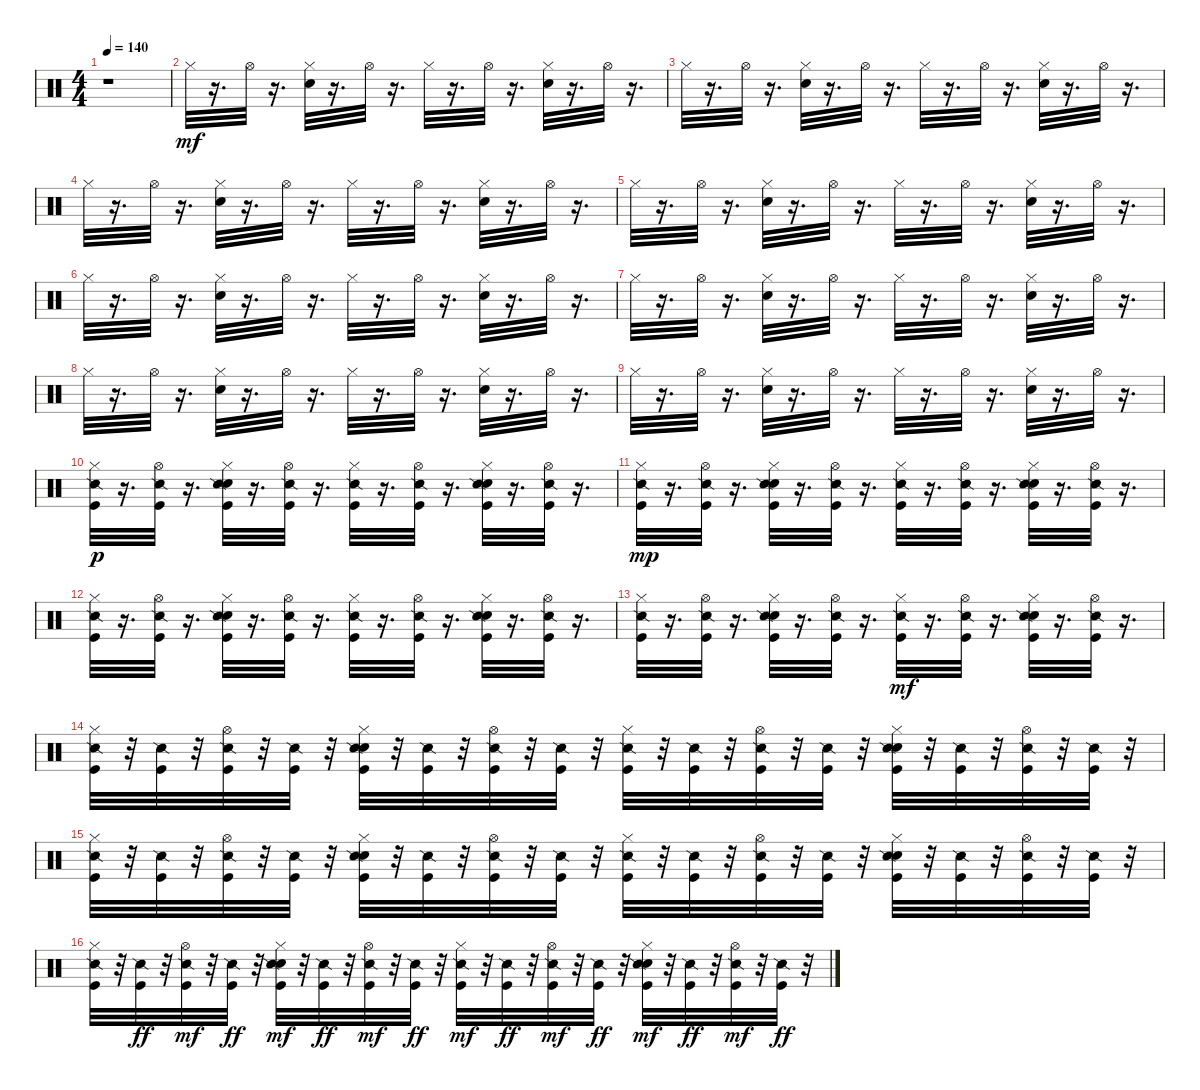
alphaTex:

\track "" {instrument percussion}
\staff {score}
\articulation defaults
\ts (4 4)
\tempo 140
\clef neutral
\ks c
r.1{dy mf} |
"Hi-Hat (closed)".32 r.16{d} "Hi-Hat (open)".32 r.16{d} ("Hi-Hat (closed)" "Hand Clap (hit)").32 r.16{d} "Hi-Hat (open)".32 r.16{d} "Hi-Hat (closed)".32 r.16{d} "Hi-Hat (open)".32 r.16{d} ("Hi-Hat (closed)" "Hand Clap (hit)").32 r.16{d} "Hi-Hat (open)".32 r.16{d} |
"Hi-Hat (closed)".32 r.16{d} "Hi-Hat (open)".32 r.16{d} ("Hi-Hat (closed)" "Hand Clap (hit)").32 r.16{d} "Hi-Hat (open)".32 r.16{d} "Hi-Hat (closed)".32 r.16{d} "Hi-Hat (open)".32 r.16{d} ("Hi-Hat (closed)" "Hand Clap (hit)").32 r.16{d} "Hi-Hat (open)".32 r.16{d} |
"Hi-Hat (closed)".32 r.16{d} "Hi-Hat (open)".32 r.16{d} ("Hi-Hat (closed)" "Hand Clap (hit)").32 r.16{d} "Hi-Hat (open)".32 r.16{d} "Hi-Hat (closed)".32 r.16{d} "Hi-Hat (open)".32 r.16{d} ("Hi-Hat (closed)" "Hand Clap (hit)").32 r.16{d} "Hi-Hat (open)".32 r.16{d} |
"Hi-Hat (closed)".32 r.16{d} "Hi-Hat (open)".32 r.16{d} ("Hi-Hat (closed)" "Hand Clap (hit)").32 r.16{d} "Hi-Hat (open)".32 r.16{d} "Hi-Hat (closed)".32 r.16{d} "Hi-Hat (open)".32 r.16{d} ("Hi-Hat (closed)" "Hand Clap (hit)").32 r.16{d} "Hi-Hat (open)".32 r.16{d} |
"Hi-Hat (closed)".32 r.16{d} "Hi-Hat (open)".32 r.16{d} ("Hi-Hat (closed)" "Hand Clap (hit)").32 r.16{d} "Hi-Hat (open)".32 r.16{d} "Hi-Hat (closed)".32 r.16{d} "Hi-Hat (open)".32 r.16{d} ("Hi-Hat (closed)" "Hand Clap (hit)").32 r.16{d} "Hi-Hat (open)".32 r.16{d} |
"Hi-Hat (closed)".32 r.16{d} "Hi-Hat (open)".32 r.16{d} ("Hi-Hat (closed)" "Hand Clap (hit)").32 r.16{d} "Hi-Hat (open)".32 r.16{d} "Hi-Hat (closed)".32 r.16{d} "Hi-Hat (open)".32 r.16{d} ("Hi-Hat (closed)" "Hand Clap (hit)").32 r.16{d} "Hi-Hat (open)".32 r.16{d} |
"Hi-Hat (closed)".32 r.16{d} "Hi-Hat (open)".32 r.16{d} ("Hi-Hat (closed)" "Hand Clap (hit)").32 r.16{d} "Hi-Hat (open)".32 r.16{d} "Hi-Hat (closed)".32 r.16{d} "Hi-Hat (open)".32 r.16{d} ("Hi-Hat (closed)" "Hand Clap (hit)").32 r.16{d} "Hi-Hat (open)".32 r.16{d} |
"Hi-Hat (closed)".32 r.16{d} "Hi-Hat (open)".32 r.16{d} ("Hi-Hat (closed)" "Hand Clap (hit)").32 r.16{d} "Hi-Hat (open)".32 r.16{d} "Hi-Hat (closed)".32 r.16{d} "Hi-Hat (open)".32 r.16{d} ("Hi-Hat (closed)" "Hand Clap (hit)").32 r.16{d} "Hi-Hat (open)".32 r.16{d} |
("Kick (hit)" "Hi-Hat (closed)" "Snare (side stick) 2").32{dy p} r.16{d} ("Kick (hit)" "Hi-Hat (open)" "Snare (side stick) 2").32 r.16{d} ("Kick (hit)" "Hi-Hat (closed)" "Hand Clap (hit)" "Snare (side stick) 2").32 r.16{d} ("Kick (hit)" "Hi-Hat (open)" "Snare (side stick) 2").32 r.16{d} ("Kick (hit)" "Hi-Hat (closed)" "Snare (side stick) 2").32 r.16{d} ("Kick (hit)" "Hi-Hat (open)" "Snare (side stick) 2").32 r.16{d} ("Kick (hit)" "Hi-Hat (closed)" "Hand Clap (hit)" "Snare (side stick) 2").32 r.16{d} ("Kick (hit)" "Hi-Hat (open)" "Snare (side stick) 2").32 r.16{d} |
("Kick (hit)" "Hi-Hat (closed)" "Snare (side stick) 2").32{dy mp} r.16{d} ("Kick (hit)" "Hi-Hat (open)" "Snare (side stick) 2").32 r.16{d} ("Kick (hit)" "Hand Clap (hit)" "Hi-Hat (closed)" "Snare (side stick) 2").32 r.16{d} ("Kick (hit)" "Hi-Hat (open)" "Snare (side stick) 2").32 r.16{d} ("Kick (hit)" "Hi-Hat (closed)" "Snare (side stick) 2").32 r.16{d} ("Kick (hit)" "Hi-Hat (open)" "Snare (side stick) 2").32 r.16{d} ("Kick (hit)" "Hand Clap (hit)" "Hi-Hat (closed)" "Snare (side stick) 2").32 r.16{d} ("Kick (hit)" "Hi-Hat (open)" "Snare (side stick) 2").32 r.16{d} |
("Kick (hit)" "Hi-Hat (closed)" "Snare (side stick) 2").32 r.16{d} ("Kick (hit)" "Hi-Hat (open)" "Snare (side stick) 2").32 r.16{d} ("Kick (hit)" "Hand Clap (hit)" "Hi-Hat (closed)" "Snare (side stick) 2").32 r.16{d} ("Kick (hit)" "Hi-Hat (open)" "Snare (side stick) 2").32 r.16{d} ("Kick (hit)" "Hi-Hat (closed)" "Snare (side stick) 2").32 r.16{d} ("Kick (hit)" "Hi-Hat (open)" "Snare (side stick) 2").32 r.16{d} ("Kick (hit)" "Hi-Hat (closed)" "Hand Clap (hit)" "Snare (side stick) 2").32 r.16{d} ("Kick (hit)" "Hi-Hat (open)" "Snare (side stick) 2").32 r.16{d} |
("Kick (hit)" "Hi-Hat (closed)" "Snare (side stick) 2").32 r.16{d} ("Kick (hit)" "Hi-Hat (open)" "Snare (side stick) 2").32 r.16{d} ("Kick (hit)" "Hi-Hat (closed)" "Hand Clap (hit)" "Snare (side stick) 2").32 r.16{d} ("Kick (hit)" "Hi-Hat (open)" "Snare (side stick) 2").32 r.16{d} ("Kick (hit)" "Hi-Hat (closed)" "Snare (side stick) 2").32{dy mf} r.16{d} ("Kick (hit)" "Hi-Hat (open)" "Snare (side stick) 2").32 r.16{d} ("Kick (hit)" "Hand Clap (hit)" "Hi-Hat (closed)" "Snare (side stick) 2").32 r.16{d} ("Kick (hit)" "Hi-Hat (open)" "Snare (side stick) 2").32 r.16{d} |
("Kick (hit)" "Hi-Hat (closed)" "Snare (side stick) 2").32 r.32 ("Kick (hit)" "Snare (side stick) 2").32 r.32 ("Kick (hit)" "Hi-Hat (open)" "Snare (side stick) 2").32 r.32 ("Kick (hit)" "Snare (side stick) 2").32 r.32 ("Kick (hit)" "Hand Clap (hit)" "Hi-Hat (closed)" "Snare (side stick) 2").32 r.32 ("Kick (hit)" "Snare (side stick) 2").32 r.32 ("Kick (hit)" "Hi-Hat (open)" "Snare (side stick) 2").32 r.32 ("Kick (hit)" "Snare (side stick) 2").32 r.32 ("Kick (hit)" "Hi-Hat (closed)" "Snare (side stick) 2").32 r.32 ("Kick (hit)" "Snare (side stick) 2").32 r.32 ("Kick (hit)" "Hi-Hat (open)" "Snare (side stick) 2").32 r.32 ("Kick (hit)" "Snare (side stick) 2").32 r.32 ("Kick (hit)" "Hi-Hat (closed)" "Hand Clap (hit)" "Snare (side stick) 2").32 r.32 ("Kick (hit)" "Snare (side stick) 2").32 r.32 ("Kick (hit)" "Hi-Hat (open)" "Snare (side stick) 2").32 r.32 ("Kick (hit)" "Snare (side stick) 2").32 r.32 |
("Kick (hit)" "Hi-Hat (closed)" "Snare (side stick) 2").32 r.32 ("Kick (hit)" "Snare (side stick) 2").32 r.32 ("Kick (hit)" "Hi-Hat (open)" "Snare (side stick) 2").32 r.32 ("Kick (hit)" "Snare (side stick) 2").32 r.32 ("Kick (hit)" "Hi-Hat (closed)" "Hand Clap (hit)" "Snare (side stick) 2").32 r.32 ("Kick (hit)" "Snare (side stick) 2").32 r.32 ("Kick (hit)" "Hi-Hat (open)" "Snare (side stick) 2").32 r.32 ("Kick (hit)" "Snare (side stick) 2").32 r.32 ("Kick (hit)" "Hi-Hat (closed)" "Snare (side stick) 2").32 r.32 ("Kick (hit)" "Snare (side stick) 2").32 r.32 ("Kick (hit)" "Hi-Hat (open)" "Snare (side stick) 2").32 r.32 ("Kick (hit)" "Snare (side stick) 2").32 r.32 ("Kick (hit)" "Hand Clap (hit)" "Hi-Hat (closed)" "Snare (side stick) 2").32 r.32 ("Kick (hit)" "Snare (side stick) 2").32 r.32 ("Kick (hit)" "Hi-Hat (open)" "Snare (side stick) 2").32 r.32 ("Kick (hit)" "Snare (side stick) 2").32 r.32 |
("Kick (hit)" "Hi-Hat (closed)" "Snare (side stick) 2").32 r.32 ("Kick (hit)" "Snare (side stick) 2").32{dy ff} r.32 ("Kick (hit)" "Hi-Hat (open)" "Snare (side stick) 2").32{dy mf} r.32 ("Kick (hit)" "Snare (side stick) 2").32{dy ff} r.32 ("Kick (hit)" "Hand Clap (hit)" "Hi-Hat (closed)" "Snare (side stick) 2").32{dy mf} r.32 ("Kick (hit)" "Snare (side stick) 2").32{dy ff} r.32 ("Kick (hit)" "Hi-Hat (open)" "Snare (side stick) 2").32{dy mf} r.32 ("Kick (hit)" "Snare (side stick) 2").32{dy ff} r.32 ("Kick (hit)" "Hi-Hat (closed)" "Snare (side stick) 2").32{dy mf} r.32 ("Kick (hit)" "Snare (side stick) 2").32{dy ff} r.32 ("Kick (hit)" "Hi-Hat (open)" "Snare (side stick) 2").32{dy mf} r.32 ("Kick (hit)" "Snare (side stick) 2").32{dy ff} r.32 ("Kick (hit)" "Hi-Hat (closed)" "Hand Clap (hit)" "Snare (side stick) 2").32{dy mf} r.32 ("Kick (hit)" "Snare (side stick) 2").32{dy ff} r.32 ("Kick (hit)" "Hi-Hat (open)" "Snare (side stick) 2").32{dy mf} r.32 ("Kick (hit)" "Snare (side stick) 2").32{dy ff} r.32
